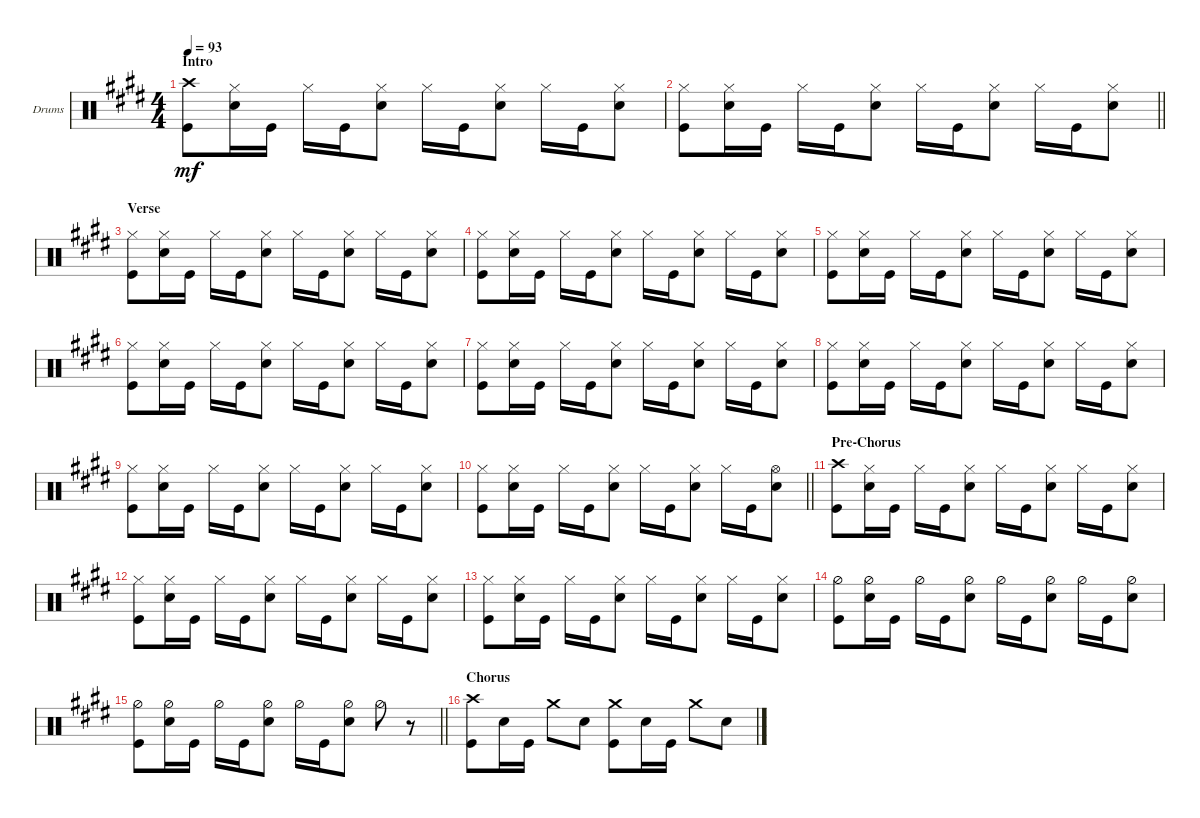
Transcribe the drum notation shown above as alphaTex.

\defaultSystemsLayout 4
\bracketExtendMode groupsimilarinstruments
\firstSystemTrackNameOrientation horizontal
\otherSystemsTrackNameOrientation horizontal
\track ("Drumkit" "Drums") {instrument percussion}
\staff {score}
\articulation defaults
\ts (4 4)
\section ("" "Intro")
\tempo 93
\clef neutral
\ks e
("Crash high (hit)" "Kick (hit)").8{dy mf} ("Snare (hit) 2" "Hi-Hat (closed)").16 "Kick (hit)".16 "Hi-Hat (closed)".16 "Kick (hit)".16 ("Snare (hit) 2" "Hi-Hat (closed)").8 "Hi-Hat (closed)".16 "Kick (hit)".16 ("Snare (hit) 2" "Hi-Hat (closed)").8 "Hi-Hat (closed)".16 "Kick (hit)".16 ("Snare (hit) 2" "Hi-Hat (closed)").8 |
\barLineRight lightlight
("Kick (hit)" "Hi-Hat (closed)").8 ("Snare (hit) 2" "Hi-Hat (closed)").16 "Kick (hit)".16 "Hi-Hat (closed)".16 "Kick (hit)".16 ("Snare (hit) 2" "Hi-Hat (closed)").8 "Hi-Hat (closed)".16 "Kick (hit)".16 ("Snare (hit) 2" "Hi-Hat (closed)").8 "Hi-Hat (closed)".16 "Kick (hit)".16 ("Snare (hit) 2" "Hi-Hat (closed)").8 |
\section ("" "Verse")
("Kick (hit)" "Hi-Hat (closed)").8 ("Snare (hit) 2" "Hi-Hat (closed)").16 "Kick (hit)".16 "Hi-Hat (closed)".16 "Kick (hit)".16 ("Snare (hit) 2" "Hi-Hat (closed)").8 "Hi-Hat (closed)".16 "Kick (hit)".16 ("Snare (hit) 2" "Hi-Hat (closed)").8 "Hi-Hat (closed)".16 "Kick (hit)".16 ("Snare (hit) 2" "Hi-Hat (closed)").8 |
("Kick (hit)" "Hi-Hat (closed)").8 ("Snare (hit) 2" "Hi-Hat (closed)").16 "Kick (hit)".16 "Hi-Hat (closed)".16 "Kick (hit)".16 ("Snare (hit) 2" "Hi-Hat (closed)").8 "Hi-Hat (closed)".16 "Kick (hit)".16 ("Snare (hit) 2" "Hi-Hat (closed)").8 "Hi-Hat (closed)".16 "Kick (hit)".16 ("Snare (hit) 2" "Hi-Hat (closed)").8 |
("Kick (hit)" "Hi-Hat (closed)").8 ("Snare (hit) 2" "Hi-Hat (closed)").16 "Kick (hit)".16 "Hi-Hat (closed)".16 "Kick (hit)".16 ("Snare (hit) 2" "Hi-Hat (closed)").8 "Hi-Hat (closed)".16 "Kick (hit)".16 ("Snare (hit) 2" "Hi-Hat (closed)").8 "Hi-Hat (closed)".16 "Kick (hit)".16 ("Snare (hit) 2" "Hi-Hat (closed)").8 |
("Kick (hit)" "Hi-Hat (closed)").8 ("Snare (hit) 2" "Hi-Hat (closed)").16 "Kick (hit)".16 "Hi-Hat (closed)".16 "Kick (hit)".16 ("Snare (hit) 2" "Hi-Hat (closed)").8 "Hi-Hat (closed)".16 "Kick (hit)".16 ("Snare (hit) 2" "Hi-Hat (closed)").8 "Hi-Hat (closed)".16 "Kick (hit)".16 ("Snare (hit) 2" "Hi-Hat (closed)").8 |
("Kick (hit)" "Hi-Hat (closed)").8 ("Snare (hit) 2" "Hi-Hat (closed)").16 "Kick (hit)".16 "Hi-Hat (closed)".16 "Kick (hit)".16 ("Snare (hit) 2" "Hi-Hat (closed)").8 "Hi-Hat (closed)".16 "Kick (hit)".16 ("Snare (hit) 2" "Hi-Hat (closed)").8 "Hi-Hat (closed)".16 "Kick (hit)".16 ("Snare (hit) 2" "Hi-Hat (closed)").8 |
("Kick (hit)" "Hi-Hat (closed)").8 ("Snare (hit) 2" "Hi-Hat (closed)").16 "Kick (hit)".16 "Hi-Hat (closed)".16 "Kick (hit)".16 ("Snare (hit) 2" "Hi-Hat (closed)").8 "Hi-Hat (closed)".16 "Kick (hit)".16 ("Snare (hit) 2" "Hi-Hat (closed)").8 "Hi-Hat (closed)".16 "Kick (hit)".16 ("Snare (hit) 2" "Hi-Hat (closed)").8 |
("Kick (hit)" "Hi-Hat (closed)").8 ("Snare (hit) 2" "Hi-Hat (closed)").16 "Kick (hit)".16 "Hi-Hat (closed)".16 "Kick (hit)".16 ("Snare (hit) 2" "Hi-Hat (closed)").8 "Hi-Hat (closed)".16 "Kick (hit)".16 ("Snare (hit) 2" "Hi-Hat (closed)").8 "Hi-Hat (closed)".16 "Kick (hit)".16 ("Snare (hit) 2" "Hi-Hat (closed)").8 |
\barLineRight lightlight
("Kick (hit)" "Hi-Hat (closed)").8 ("Snare (hit) 2" "Hi-Hat (closed)").16 "Kick (hit)".16 "Hi-Hat (closed)".16 "Kick (hit)".16 ("Snare (hit) 2" "Hi-Hat (closed)").8 "Hi-Hat (closed)".16 "Kick (hit)".16 ("Snare (hit) 2" "Hi-Hat (closed)").8 "Hi-Hat (closed)".16 "Kick (hit)".16 ("Snare (hit) 2" "Hi-Hat (open)").8 |
\section ("" "Pre-Chorus")
("Crash high (hit)" "Kick (hit)").8 ("Snare (hit) 2" "Hi-Hat (closed)").16 "Kick (hit)".16 "Hi-Hat (closed)".16 "Kick (hit)".16 ("Snare (hit) 2" "Hi-Hat (closed)").8 "Hi-Hat (closed)".16 "Kick (hit)".16 ("Snare (hit) 2" "Hi-Hat (closed)").8 "Hi-Hat (closed)".16 "Kick (hit)".16 ("Snare (hit) 2" "Hi-Hat (closed)").8 |
("Kick (hit)" "Hi-Hat (closed)").8 ("Snare (hit) 2" "Hi-Hat (closed)").16 "Kick (hit)".16 "Hi-Hat (closed)".16 "Kick (hit)".16 ("Snare (hit) 2" "Hi-Hat (closed)").8 "Hi-Hat (closed)".16 "Kick (hit)".16 ("Snare (hit) 2" "Hi-Hat (closed)").8 "Hi-Hat (closed)".16 "Kick (hit)".16 ("Snare (hit) 2" "Hi-Hat (closed)").8 |
("Kick (hit)" "Hi-Hat (closed)").8 ("Snare (hit) 2" "Hi-Hat (closed)").16 "Kick (hit)".16 "Hi-Hat (closed)".16 "Kick (hit)".16 ("Snare (hit) 2" "Hi-Hat (closed)").8 "Hi-Hat (closed)".16 "Kick (hit)".16 ("Snare (hit) 2" "Hi-Hat (closed)").8 "Hi-Hat (closed)".16 "Kick (hit)".16 ("Snare (hit) 2" "Hi-Hat (closed)").8 |
("Kick (hit)" "Hi-Hat (half)").8 ("Snare (hit) 2" "Hi-Hat (half)").16 "Kick (hit)".16 "Hi-Hat (half)".16 "Kick (hit)".16 ("Snare (hit) 2" "Hi-Hat (half)").8 "Hi-Hat (half)".16 "Kick (hit)".16 ("Snare (hit) 2" "Hi-Hat (half)").8 "Hi-Hat (half)".16 "Kick (hit)".16 ("Snare (hit) 2" "Hi-Hat (half)").8 |
\barLineRight lightlight
("Kick (hit)" "Hi-Hat (half)").8 ("Snare (hit) 2" "Hi-Hat (half)").16 "Kick (hit)".16 "Hi-Hat (half)".16 "Kick (hit)".16 ("Snare (hit) 2" "Hi-Hat (half)").8 "Hi-Hat (half)".16 "Kick (hit)".16 ("Snare (hit) 2" "Hi-Hat (half)").8 "Hi-Hat (half)".8 r.8 |
\section ("" "Chorus")
("Crash high (hit)" "Kick (hit)").8 "Snare (hit) 2".16 "Kick (hit)".16 "Crash medium (hit)".8 "Snare (hit) 2".8 ("Kick (hit)" "Crash medium (hit)").8 "Snare (hit) 2".16 "Kick (hit)".16 "Crash medium (hit)".8 "Snare (hit) 2".8
